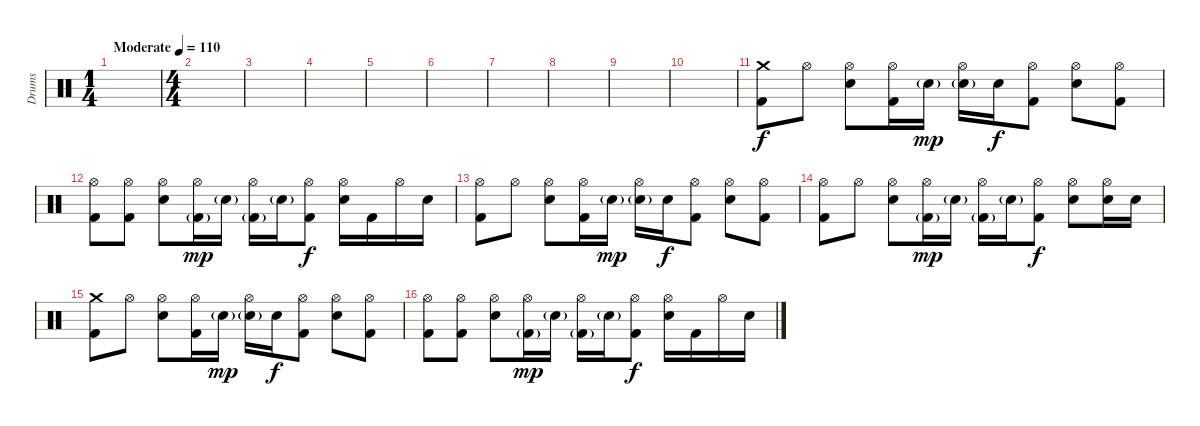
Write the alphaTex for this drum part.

\track ("Drums" "Drums") {instrument percussion}
\staff {score}
\articulation defaults
\ts (1 4)
\tempo (110 "Moderate")
\clef neutral
\ks c
|
\ts (4 4)
|
|
|
|
|
|
|
|
|
("Crash medium (hit)" "Kick (hit) 2").8 "Hi-Hat (open)".8 ("Hi-Hat (open)" "Electric Snare (hit)").8 ("Hi-Hat (open)" "Kick (hit) 2").16 "Electric Snare (hit)"{g}.16{dy mp} ("Hi-Hat (open)" "Electric Snare (hit)"{g}).16 "Electric Snare (hit)".16{dy f} ("Hi-Hat (open)" "Kick (hit) 2").8 ("Hi-Hat (open)" "Electric Snare (hit)").8 ("Hi-Hat (open)" "Kick (hit) 2").8 |
("Hi-Hat (open)" "Kick (hit) 2").8 ("Hi-Hat (open)" "Kick (hit) 2").8 ("Hi-Hat (open)" "Electric Snare (hit)").8 ("Hi-Hat (open)" "Kick (hit) 2"{g}).16{dy mp} "Electric Snare (hit)"{g}.16 ("Hi-Hat (open)" "Kick (hit) 2"{g}).16 "Electric Snare (hit)"{g}.16 ("Hi-Hat (open)" "Kick (hit) 2").8{dy f} ("Hi-Hat (open)" "Electric Snare (hit)").16 "Kick (hit) 2".16 "Hi-Hat (open)".16 "Electric Snare (hit)".16 |
("Hi-Hat (open)" "Kick (hit) 2").8 "Hi-Hat (open)".8 ("Hi-Hat (open)" "Electric Snare (hit)").8 ("Hi-Hat (open)" "Kick (hit) 2").16 "Electric Snare (hit)"{g}.16{dy mp} ("Hi-Hat (open)" "Electric Snare (hit)"{g}).16 "Electric Snare (hit)".16{dy f} ("Hi-Hat (open)" "Kick (hit) 2").8 ("Hi-Hat (open)" "Electric Snare (hit)").8 ("Hi-Hat (open)" "Kick (hit) 2").8 |
("Hi-Hat (open)" "Kick (hit) 2").8 "Hi-Hat (open)".8 ("Hi-Hat (open)" "Electric Snare (hit)").8 ("Hi-Hat (open)" "Kick (hit) 2"{g}).16{dy mp} "Electric Snare (hit)"{g}.16 ("Hi-Hat (open)" "Kick (hit) 2"{g}).16 "Electric Snare (hit)"{g}.16 ("Hi-Hat (open)" "Kick (hit) 2").8{dy f} ("Hi-Hat (open)" "Electric Snare (hit)").8 ("Hi-Hat (open)" "Electric Snare (hit)").16 "Electric Snare (hit)".16 |
("Crash medium (hit)" "Kick (hit) 2").8 "Hi-Hat (open)".8 ("Hi-Hat (open)" "Electric Snare (hit)").8 ("Hi-Hat (open)" "Kick (hit) 2").16 "Electric Snare (hit)"{g}.16{dy mp} ("Hi-Hat (open)" "Electric Snare (hit)"{g}).16 "Electric Snare (hit)".16{dy f} ("Hi-Hat (open)" "Kick (hit) 2").8 ("Hi-Hat (open)" "Electric Snare (hit)").8 ("Hi-Hat (open)" "Kick (hit) 2").8 |
("Hi-Hat (open)" "Kick (hit) 2").8 ("Hi-Hat (open)" "Kick (hit) 2").8 ("Hi-Hat (open)" "Electric Snare (hit)").8 ("Hi-Hat (open)" "Kick (hit) 2"{g}).16{dy mp} "Electric Snare (hit)"{g}.16 ("Hi-Hat (open)" "Kick (hit) 2"{g}).16 "Electric Snare (hit)"{g}.16 ("Hi-Hat (open)" "Kick (hit) 2").8{dy f} ("Hi-Hat (open)" "Electric Snare (hit)").16 "Kick (hit) 2".16 "Hi-Hat (open)".16 "Electric Snare (hit)".16
